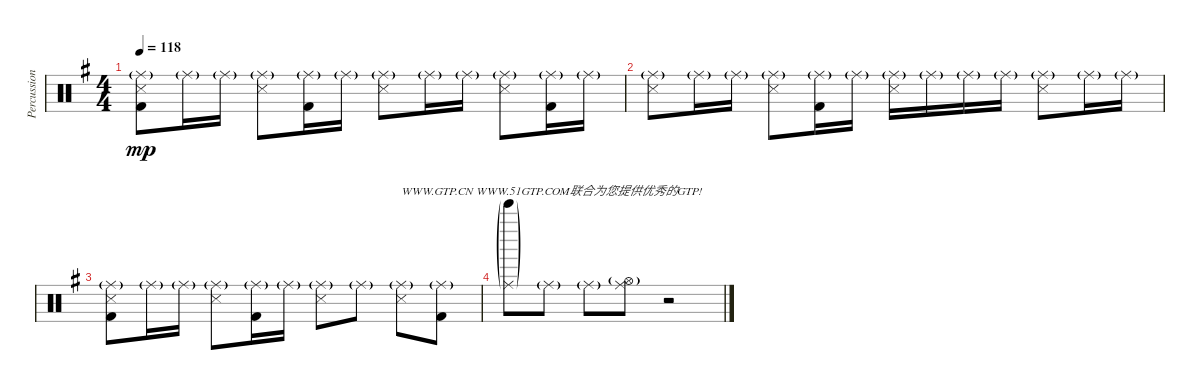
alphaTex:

\track ("Percussion" "Percussion") {instrument percussion}
\staff {score}
\articulation defaults
\ts (4 4)
\tempo 118
\clef neutral
\ks eminor
("Ride (middle)"{g} "Snare (side stick) 3" "Kick (hit) 2").8{dy mp} "Ride (middle)"{g}.16 "Ride (middle)"{g}.16 ("Ride (middle)"{g} "Snare (side stick) 3").8 ("Ride (middle)"{g} "Kick (hit) 2").16 "Ride (middle)"{g}.16 ("Ride (middle)"{g} "Snare (side stick) 3").8 "Ride (middle)"{g}.16 "Ride (middle)"{g}.16 ("Ride (middle)"{g} "Snare (side stick) 3").8 ("Ride (middle)"{g} "Kick (hit) 2").16 "Ride (middle)"{g}.16 |
("Ride (middle)"{g} "Snare (side stick) 3").8 "Ride (middle)"{g}.16 "Ride (middle)"{g}.16 ("Ride (middle)"{g} "Snare (side stick) 3").8 ("Ride (middle)"{g} "Kick (hit) 2").16 "Ride (middle)"{g}.16 ("Ride (middle)"{g} "Snare (side stick) 3").16 "Ride (middle)"{g}.16 "Ride (middle)"{g}.16 "Ride (middle)"{g}.16 ("Ride (middle)"{g} "Snare (side stick) 3").8 "Ride (middle)"{g}.16 "Ride (middle)"{g}.16 |
("Ride (middle)"{g} "Snare (side stick) 3" "Kick (hit) 2").8 "Ride (middle)"{g}.16 "Ride (middle)"{g}.16 ("Ride (middle)"{g} "Snare (side stick) 3").8 ("Ride (middle)"{g} "Kick (hit) 2").16 "Ride (middle)"{g}.16 ("Ride (middle)"{g} "Snare (side stick) 3").8 "Ride (middle)"{g}.8 ("Ride (middle)"{g} "Snare (side stick) 3").8{txt "WWW.GTP.CN WWW.51GTP.COM联合为您提供优秀的GTP!"} ("Ride (middle)"{g} "Kick (hit) 2").8 |
("Bell Tree (hit)"{g} "Ride (middle)"{g}).8 "Ride (middle)"{g}.8 "Ride (middle)"{g}.8 ("Hi-Hat (open)"{g} "Ride (middle)").8 r.2
